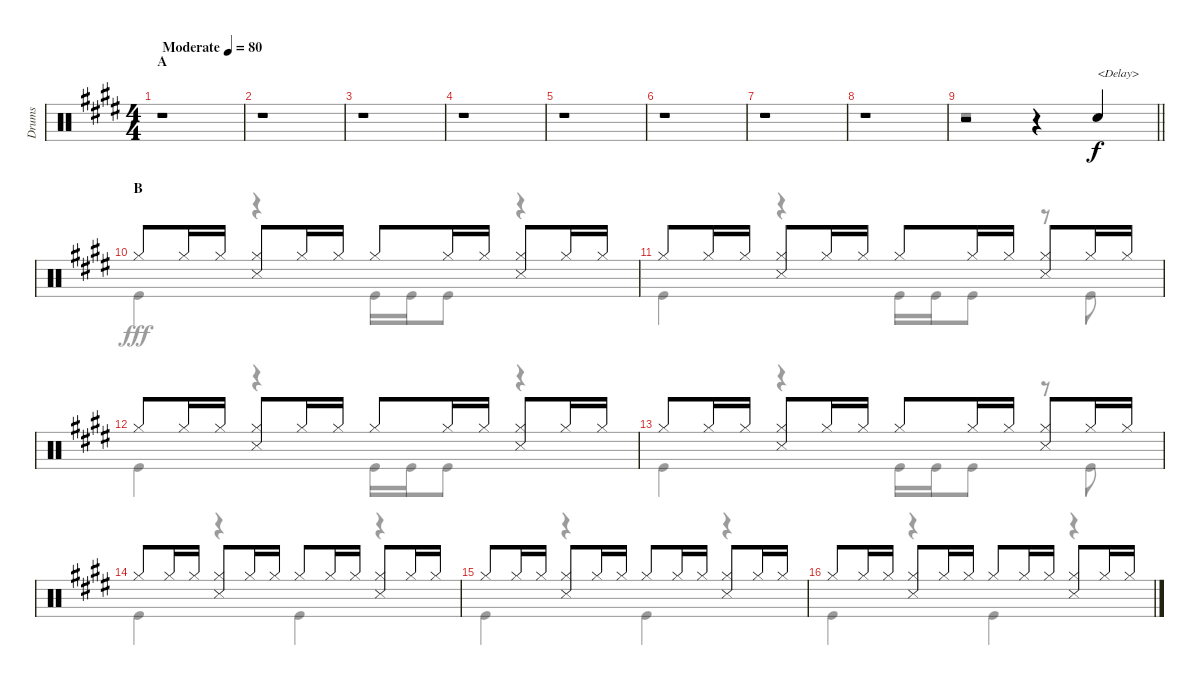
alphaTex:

\track ("Drums" "Drums") {instrument percussion}
\staff {score}
\articulation defaults
\voice
\ts (4 4)
\section ("" "A")
\tempo (80 "Moderate")
\clef neutral
\ks e
r.1{dy f} |
r.1 |
r.1 |
r.1 |
r.1 |
r.1 |
r.1 |
r.1 |
\barLineRight lightlight
r.2 r.4 "Snare (hit) 2".4{txt "<Delay>"} |
\section ("" "B")
"Hi-Hat (closed)".8 "Hi-Hat (closed)".16 "Hi-Hat (closed)".16 ("Hi-Hat (closed)" "Snare (side stick) 3").8 "Hi-Hat (closed)".16 "Hi-Hat (closed)".16 "Hi-Hat (closed)".8 "Hi-Hat (closed)".16 "Hi-Hat (closed)".16 ("Hi-Hat (closed)" "Snare (side stick) 3").8 "Hi-Hat (closed)".16 "Hi-Hat (closed)".16 |
"Hi-Hat (closed)".8 "Hi-Hat (closed)".16 "Hi-Hat (closed)".16 ("Hi-Hat (closed)" "Snare (side stick) 3").8 "Hi-Hat (closed)".16 "Hi-Hat (closed)".16 "Hi-Hat (closed)".8 "Hi-Hat (closed)".16 "Hi-Hat (closed)".16 ("Hi-Hat (closed)" "Snare (side stick) 3").8 "Hi-Hat (closed)".16 "Hi-Hat (closed)".16 |
"Hi-Hat (closed)".8 "Hi-Hat (closed)".16 "Hi-Hat (closed)".16 ("Hi-Hat (closed)" "Snare (side stick) 3").8 "Hi-Hat (closed)".16 "Hi-Hat (closed)".16 "Hi-Hat (closed)".8 "Hi-Hat (closed)".16 "Hi-Hat (closed)".16 ("Hi-Hat (closed)" "Snare (side stick) 3").8 "Hi-Hat (closed)".16 "Hi-Hat (closed)".16 |
"Hi-Hat (closed)".8 "Hi-Hat (closed)".16 "Hi-Hat (closed)".16 ("Hi-Hat (closed)" "Snare (side stick) 3").8 "Hi-Hat (closed)".16 "Hi-Hat (closed)".16 "Hi-Hat (closed)".8 "Hi-Hat (closed)".16 "Hi-Hat (closed)".16 ("Hi-Hat (closed)" "Snare (side stick) 3").8 "Hi-Hat (closed)".16 "Hi-Hat (closed)".16 |
"Hi-Hat (closed)".8 "Hi-Hat (closed)".16 "Hi-Hat (closed)".16 ("Hi-Hat (closed)" "Snare (side stick) 3").8 "Hi-Hat (closed)".16 "Hi-Hat (closed)".16 "Hi-Hat (closed)".8 "Hi-Hat (closed)".16 "Hi-Hat (closed)".16 ("Hi-Hat (closed)" "Snare (side stick) 3").8 "Hi-Hat (closed)".16 "Hi-Hat (closed)".16 |
"Hi-Hat (closed)".8 "Hi-Hat (closed)".16 "Hi-Hat (closed)".16 ("Hi-Hat (closed)" "Snare (side stick) 3").8 "Hi-Hat (closed)".16 "Hi-Hat (closed)".16 "Hi-Hat (closed)".8 "Hi-Hat (closed)".16 "Hi-Hat (closed)".16 ("Hi-Hat (closed)" "Snare (side stick) 3").8 "Hi-Hat (closed)".16 "Hi-Hat (closed)".16 |
"Hi-Hat (closed)".8 "Hi-Hat (closed)".16 "Hi-Hat (closed)".16 ("Hi-Hat (closed)" "Snare (side stick) 3").8 "Hi-Hat (closed)".16 "Hi-Hat (closed)".16 "Hi-Hat (closed)".8 "Hi-Hat (closed)".16 "Hi-Hat (closed)".16 ("Hi-Hat (closed)" "Snare (side stick) 3").8 "Hi-Hat (closed)".16 "Hi-Hat (closed)".16
\voice
\clef neutral
\ottava regular
\simile none
\ks e
r.1{dy fff} |
r.1 |
r.1 |
r.1 |
r.1 |
r.1 |
r.1 |
r.1 |
\barLineRight lightlight
r.1 |
"Kick (hit)".4 r.4 "Kick (hit)".16 "Kick (hit)".16 "Kick (hit)".8 r.4 |
"Kick (hit)".4 r.4 "Kick (hit)".16 "Kick (hit)".16 "Kick (hit)".8 r.8 "Kick (hit)".8 |
"Kick (hit)".4 r.4 "Kick (hit)".16 "Kick (hit)".16 "Kick (hit)".8 r.4 |
"Kick (hit)".4 r.4 "Kick (hit)".16 "Kick (hit)".16 "Kick (hit)".8 r.8 "Kick (hit)".8 |
"Kick (hit)".4 r.4 "Kick (hit)".4 r.4 |
"Kick (hit)".4 r.4 "Kick (hit)".4 r.4 |
"Kick (hit)".4 r.4 "Kick (hit)".4 r.4
